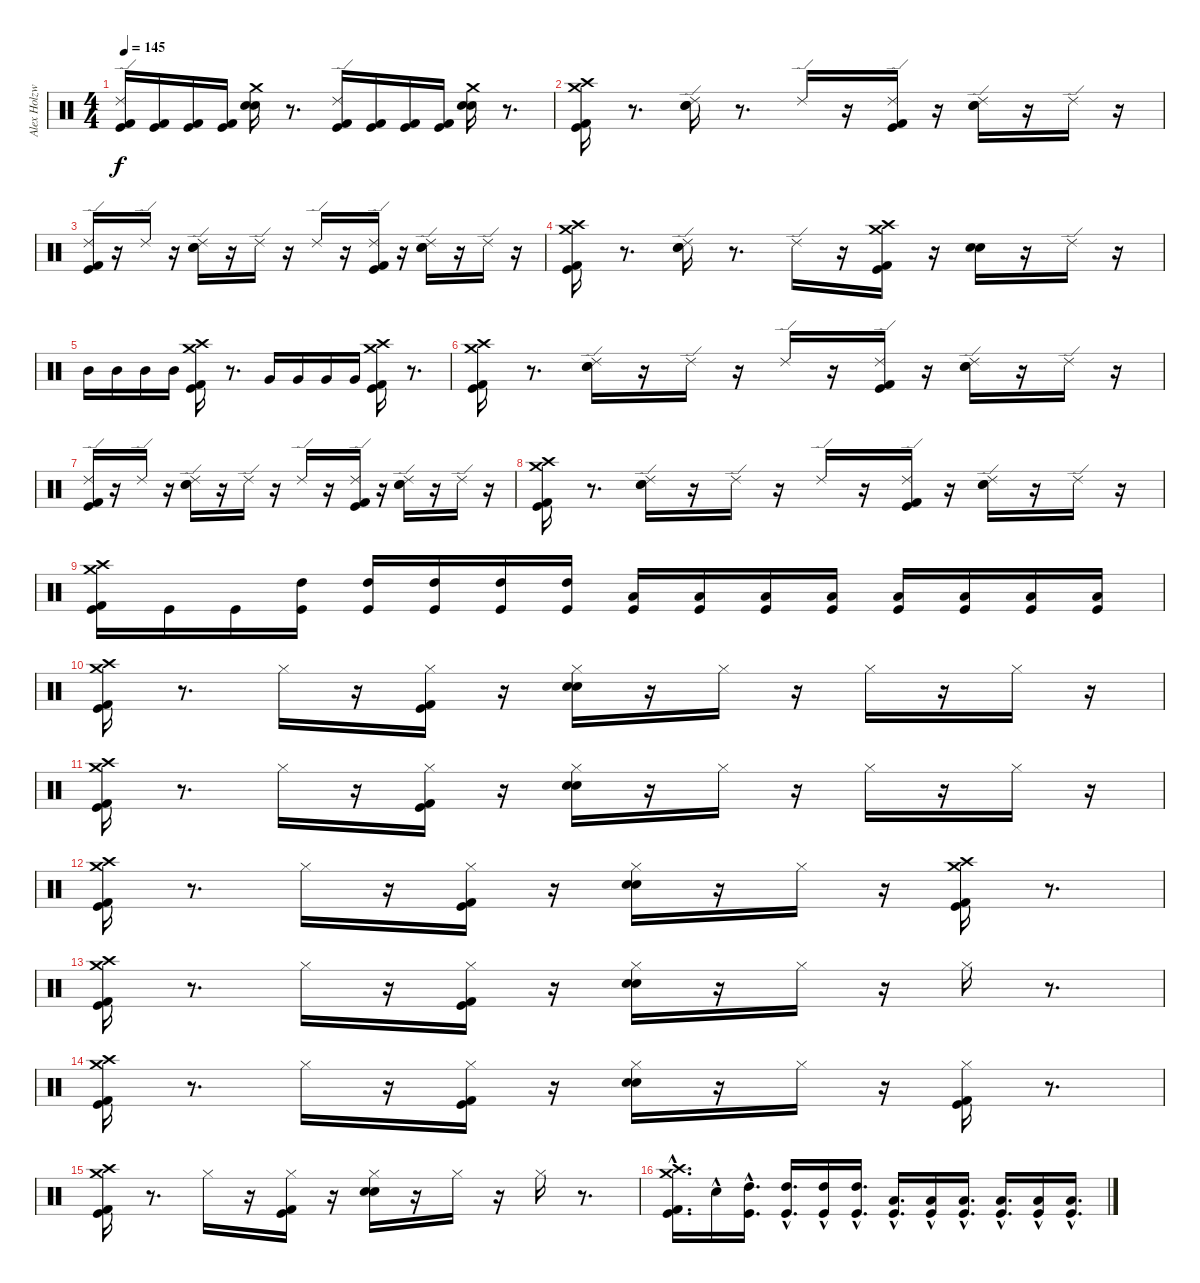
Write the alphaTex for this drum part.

\track ("Alex Holzwarth" "Alex Holzw") {instrument percussion}
\staff {score}
\articulation defaults
\ts (4 4)
\tempo 145
\clef neutral
\ks c
("Ride (edge) 2" "Kick (hit) 2" "Kick (hit)").16{dy f} ("Kick (hit) 2" "Kick (hit)").16 ("Kick (hit) 2" "Kick (hit)").16 ("Kick (hit) 2" "Kick (hit)").16 ("Crash medium (hit)" "Electric Snare (hit)" "Snare (hit) 2").16 r.8{d} ("Ride (edge) 2" "Kick (hit) 2" "Kick (hit)").16 ("Kick (hit) 2" "Kick (hit)").16 ("Kick (hit) 2" "Kick (hit)").16 ("Kick (hit) 2" "Kick (hit)").16 ("Crash medium (hit)" "Electric Snare (hit)" "Snare (hit) 2").16 r.8{d} |
("Crash high (hit)" "Crash medium (hit)" "Kick (hit) 2" "Kick (hit)").16 r.8{d} ("Ride (edge) 2" "Electric Snare (hit)" "Snare (hit) 2").16 r.8{d} "Ride (edge) 2".16 r.16 ("Kick (hit) 2" "Kick (hit)" "Ride (edge) 2").16 r.16 ("Ride (edge) 2" "Electric Snare (hit)" "Snare (hit) 2").16 r.16 "Ride (edge) 2".16 r.16 |
("Ride (edge) 2" "Kick (hit) 2" "Kick (hit)").16 r.16 "Ride (edge) 2".16 r.16 ("Ride (edge) 2" "Electric Snare (hit)" "Snare (hit) 2").16 r.16 "Ride (edge) 2".16 r.16 "Ride (edge) 2".16 r.16 ("Ride (edge) 2" "Kick (hit) 2" "Kick (hit)").16 r.16 ("Ride (edge) 2" "Electric Snare (hit)" "Snare (hit) 2").16 r.16 "Ride (edge) 2".16 r.16 |
("Crash high (hit)" "Crash medium (hit)" "Kick (hit) 2" "Kick (hit)").16 r.8{d} ("Ride (edge) 2" "Electric Snare (hit)" "Snare (hit) 2").16 r.8{d} "Ride (edge) 2".16 r.16 ("Kick (hit) 2" "Kick (hit)" "Crash high (hit)" "Crash medium (hit)").16 r.16 ("Electric Snare (hit)" "Snare (hit) 2").16 r.16 "Ride (edge) 2".16 r.16 |
"Mid Tom (hit)".16 "Mid Tom (hit)".16 "Mid Tom (hit)".16 "Mid Tom (hit)".16 ("Crash high (hit)" "Crash medium (hit)" "Kick (hit) 2" "Kick (hit)").16 r.8{d} "Very Low Tom (hit)".16 "Very Low Tom (hit)".16 "Very Low Tom (hit)".16 "Very Low Tom (hit)".16 ("Kick (hit)" "Kick (hit) 2" "Crash high (hit)" "Crash medium (hit)").16 r.8{d} |
("Crash high (hit)" "Crash medium (hit)" "Kick (hit) 2" "Kick (hit)").16 r.8{d} ("Ride (edge) 2" "Electric Snare (hit)" "Snare (hit) 2").16 r.16 "Ride (edge) 2".16 r.16 "Ride (edge) 2".16 r.16 ("Ride (edge) 2" "Kick (hit) 2" "Kick (hit)").16 r.16 ("Ride (edge) 2" "Electric Snare (hit)" "Snare (hit) 2").16 r.16 "Ride (edge) 2".16 r.16 |
("Ride (edge) 2" "Kick (hit) 2" "Kick (hit)").16 r.16 "Ride (edge) 2".16 r.16 ("Ride (edge) 2" "Electric Snare (hit)" "Snare (hit) 2").16 r.16 "Ride (edge) 2".16 r.16 "Ride (edge) 2".16 r.16 ("Kick (hit) 2" "Ride (edge) 2" "Kick (hit)").16 r.16 ("Ride (edge) 2" "Electric Snare (hit)" "Snare (hit) 2").16 r.16 "Ride (edge) 2".16 r.16 |
("Crash high (hit)" "Crash medium (hit)" "Kick (hit) 2" "Kick (hit)").16 r.8{d} ("Ride (edge) 2" "Electric Snare (hit)" "Snare (hit) 2").16 r.16 "Ride (edge) 2".16 r.16 "Ride (edge) 2".16 r.16 ("Kick (hit) 2" "Kick (hit)" "Ride (edge) 2").16 r.16 ("Ride (edge) 2" "Electric Snare (hit)" "Snare (hit) 2").16 r.16 "Ride (edge) 2".16 r.16 |
("Kick (hit)" "Crash high (hit)" "Crash medium (hit)" "Kick (hit) 2").16 "Kick (hit)".16 "Kick (hit)".16 ("Kick (hit)" "High Tom (hit)").16 ("Kick (hit)" "High Tom (hit)").16 ("Kick (hit)" "High Tom (hit)").16 ("Kick (hit)" "High Tom (hit)").16 ("Kick (hit)" "High Tom (hit)").16 ("Kick (hit)" "Low Tom (hit)").16 ("Kick (hit)" "Low Tom (hit)").16 ("Kick (hit)" "Low Tom (hit)").16 ("Kick (hit)" "Low Tom (hit)").16 ("Kick (hit)" "Low Floor Tom (hit)").16 ("Kick (hit)" "Low Floor Tom (hit)").16 ("Kick (hit)" "Low Floor Tom (hit)").16 ("Kick (hit)" "Low Floor Tom (hit)").16 |
("Crash medium (hit)" "Crash high (hit)" "Kick (hit) 2" "Kick (hit)").16 r.8{d} "Hi-Hat (closed)".16 r.16 ("Kick (hit) 2" "Kick (hit)" "Hi-Hat (closed)").16 r.16 ("Electric Snare (hit)" "Snare (hit) 2" "Hi-Hat (closed)").16 r.16 "Hi-Hat (closed)".16 r.16 "Hi-Hat (closed)".16 r.16 "Hi-Hat (closed)".16 r.16 |
("Crash medium (hit)" "Crash high (hit)" "Kick (hit) 2" "Kick (hit)").16 r.8{d} "Hi-Hat (closed)".16 r.16 ("Kick (hit) 2" "Kick (hit)" "Hi-Hat (closed)").16 r.16 ("Electric Snare (hit)" "Snare (hit) 2" "Hi-Hat (closed)").16 r.16 "Hi-Hat (closed)".16 r.16 "Hi-Hat (closed)".16 r.16 "Hi-Hat (closed)".16 r.16 |
("Crash medium (hit)" "Crash high (hit)" "Kick (hit) 2" "Kick (hit)").16 r.8{d} "Hi-Hat (closed)".16 r.16 ("Kick (hit) 2" "Kick (hit)" "Hi-Hat (closed)").16 r.16 ("Hi-Hat (closed)" "Electric Snare (hit)" "Snare (hit) 2").16 r.16 "Hi-Hat (closed)".16 r.16 ("Kick (hit) 2" "Kick (hit)" "Crash medium (hit)" "Crash high (hit)").16 r.8{d} |
("Crash medium (hit)" "Crash high (hit)" "Kick (hit) 2" "Kick (hit)").16 r.8{d} "Hi-Hat (closed)".16 r.16 ("Kick (hit) 2" "Kick (hit)" "Hi-Hat (closed)").16 r.16 ("Electric Snare (hit)" "Snare (hit) 2" "Hi-Hat (closed)").16 r.16 "Hi-Hat (closed)".16 r.16 "Hi-Hat (closed)".16 r.8{d} |
("Crash high (hit)" "Crash medium (hit)" "Kick (hit) 2" "Kick (hit)").16 r.8{d} "Hi-Hat (closed)".16 r.16 ("Kick (hit)" "Kick (hit) 2" "Hi-Hat (closed)").16 r.16 ("Electric Snare (hit)" "Snare (hit) 2" "Hi-Hat (closed)").16 r.16 "Hi-Hat (closed)".16 r.16 ("Kick (hit)" "Kick (hit) 2" "Hi-Hat (closed)").16 r.8{d} |
("Crash medium (hit)" "Crash high (hit)" "Kick (hit) 2" "Kick (hit)").16 r.8{d} "Hi-Hat (closed)".16 r.16 ("Kick (hit) 2" "Kick (hit)" "Hi-Hat (closed)").16 r.16 ("Electric Snare (hit)" "Snare (hit) 2" "Hi-Hat (closed)").16 r.16 "Hi-Hat (closed)".16 r.16 "Hi-Hat (closed)".16 r.8{d} |
("Crash high (hit)"{hac} "Crash medium (hit)"{hac} "Kick (hit) 2"{hac} "Kick (hit)"{hac}).16{d} "Snare (hit)"{hac}.16 ("High Tom (hit)"{hac} "Kick (hit)"{hac}).16{d} ("High Tom (hit)"{hac} "Kick (hit)"{hac}).16{d} ("High Tom (hit)"{hac} "Kick (hit)"{hac}).16 ("High Tom (hit)"{hac} "Kick (hit)"{hac}).16{d} ("Low Tom (hit)"{hac} "Kick (hit)"{hac}).16{d} ("Low Tom (hit)"{hac} "Kick (hit)"{hac}).16 ("Low Tom (hit)"{hac} "Kick (hit)"{hac}).16{d} ("Kick (hit)"{hac} "Low Floor Tom (hit)"{hac}).16{d} ("Kick (hit)"{hac} "Low Floor Tom (hit)"{hac}).16 ("Kick (hit)"{hac} "Low Floor Tom (hit)"{hac}).16{d}
